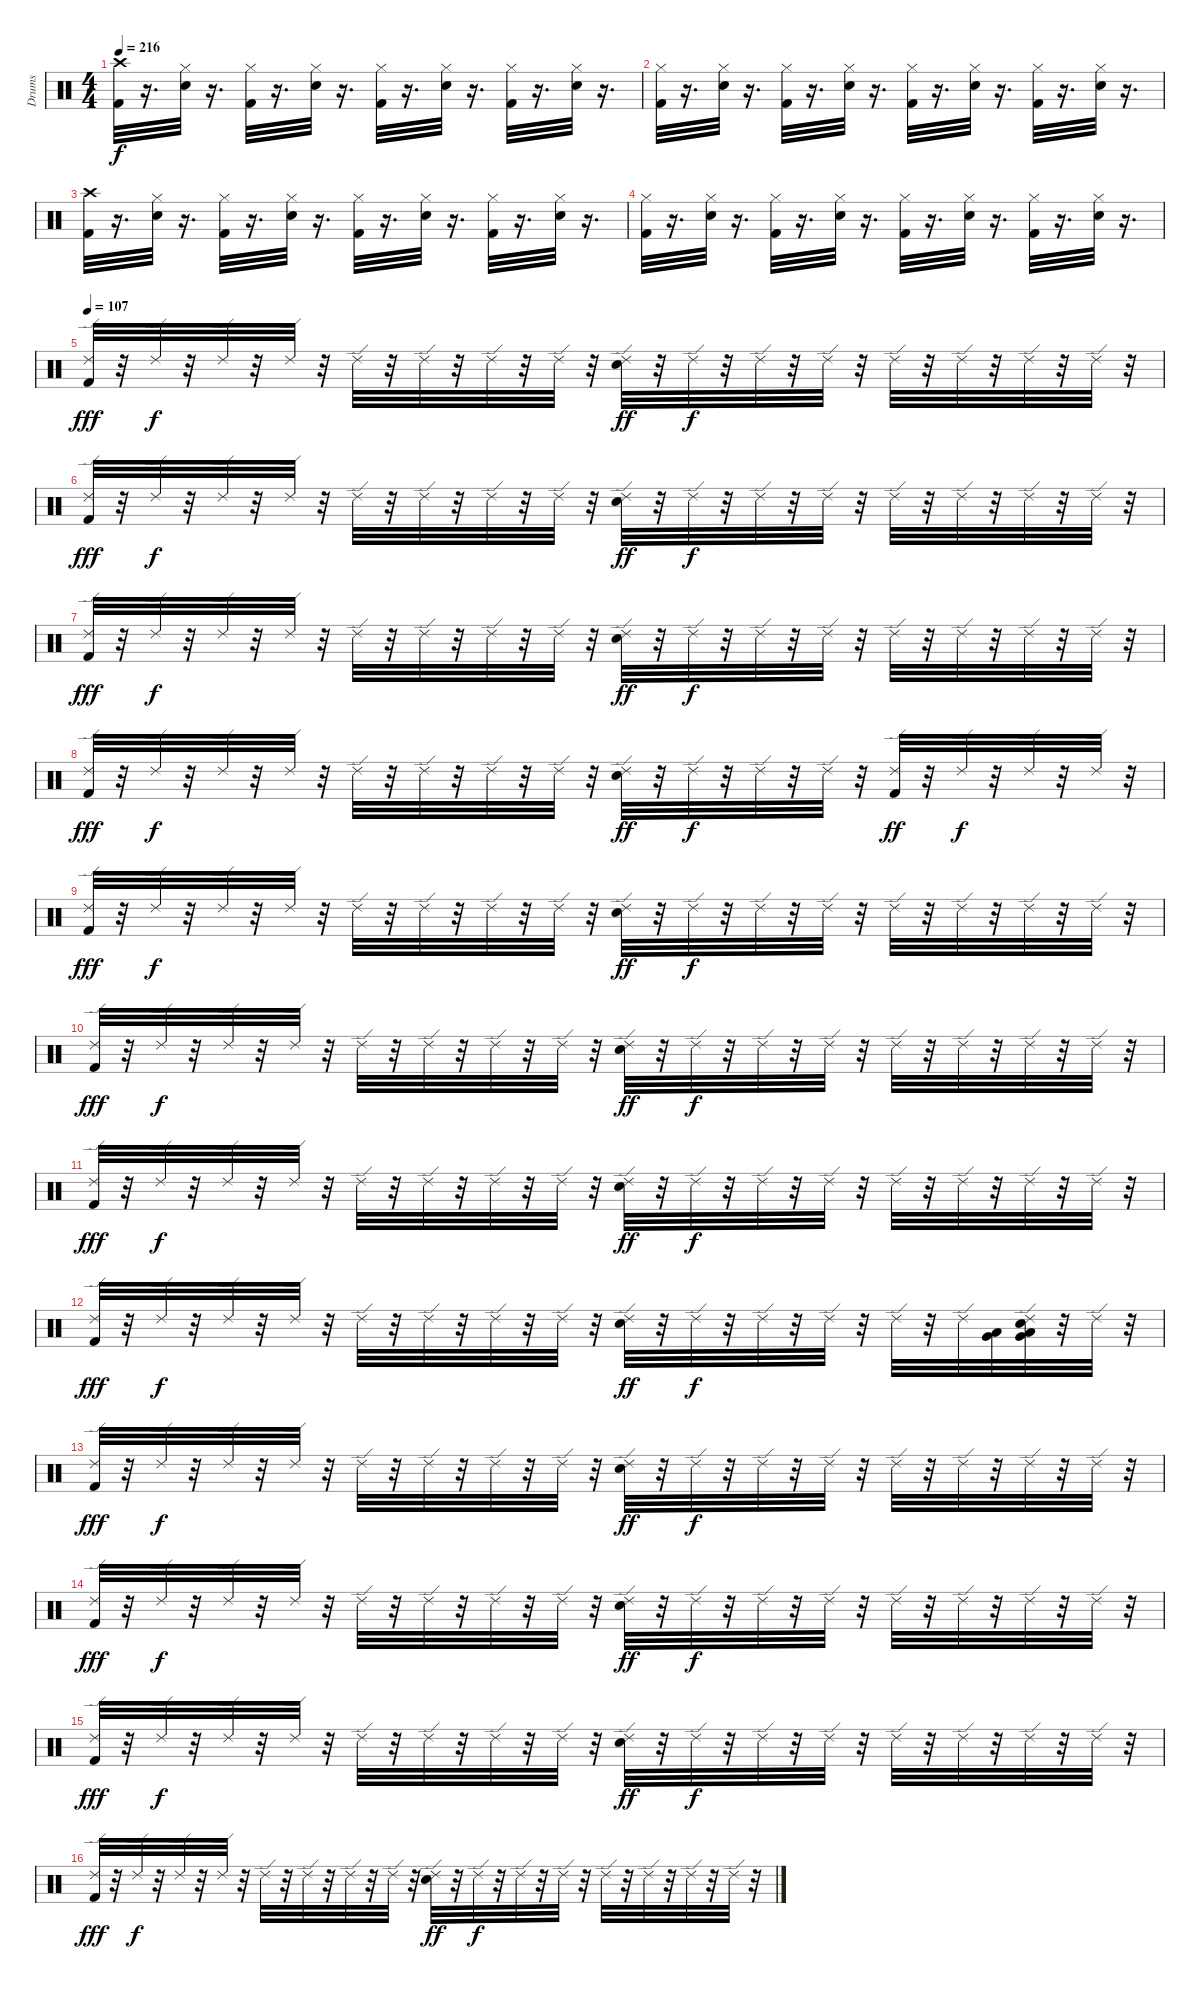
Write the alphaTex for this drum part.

\track ("Drums" "Drums") {instrument percussion}
\staff {score}
\articulation defaults
\ts (4 4)
\tempo 216
\clef neutral
\ks c
("Kick (hit) 2" "Crash high (hit)").32{dy f} r.16{d} ("Snare (hit) 2" "Hi-Hat (closed)").32 r.16{d} ("Kick (hit) 2" "Hi-Hat (closed)").32 r.16{d} ("Snare (hit) 2" "Hi-Hat (closed)").32 r.16{d} ("Kick (hit) 2" "Hi-Hat (closed)").32 r.16{d} ("Snare (hit) 2" "Hi-Hat (closed)").32 r.16{d} ("Kick (hit) 2" "Hi-Hat (closed)").32 r.16{d} ("Snare (hit) 2" "Hi-Hat (closed)").32 r.16{d} |
("Kick (hit) 2" "Hi-Hat (closed)").32 r.16{d} ("Snare (hit) 2" "Hi-Hat (closed)").32 r.16{d} ("Kick (hit) 2" "Hi-Hat (closed)").32 r.16{d} ("Snare (hit) 2" "Hi-Hat (closed)").32 r.16{d} ("Kick (hit) 2" "Hi-Hat (closed)").32 r.16{d} ("Snare (hit) 2" "Hi-Hat (closed)").32 r.16{d} ("Kick (hit) 2" "Hi-Hat (closed)").32 r.16{d} ("Snare (hit) 2" "Hi-Hat (closed)").32 r.16{d} |
("Kick (hit) 2" "Crash high (hit)").32 r.16{d} ("Snare (hit) 2" "Hi-Hat (closed)").32 r.16{d} ("Kick (hit) 2" "Hi-Hat (closed)").32 r.16{d} ("Snare (hit) 2" "Hi-Hat (closed)").32 r.16{d} ("Kick (hit) 2" "Hi-Hat (closed)").32 r.16{d} ("Snare (hit) 2" "Hi-Hat (closed)").32 r.16{d} ("Kick (hit) 2" "Hi-Hat (closed)").32 r.16{d} ("Snare (hit) 2" "Hi-Hat (closed)").32 r.16{d} |
("Kick (hit) 2" "Hi-Hat (closed)").32 r.16{d} ("Snare (hit) 2" "Hi-Hat (closed)").32 r.16{d} ("Kick (hit) 2" "Hi-Hat (closed)").32 r.16{d} ("Snare (hit) 2" "Hi-Hat (closed)").32 r.16{d} ("Kick (hit) 2" "Hi-Hat (closed)").32 r.16{d} ("Snare (hit) 2" "Hi-Hat (closed)").32 r.16{d} ("Kick (hit) 2" "Hi-Hat (closed)").32 r.16{d} ("Snare (hit) 2" "Hi-Hat (closed)").32 r.16{d} |
\tempo 107
("Kick (hit) 2" "Ride (edge) 2").32{dy fff} r.32 "Ride (edge) 2".32{dy f} r.32 "Ride (edge) 2".32 r.32 "Ride (edge) 2".32 r.32 "Ride (edge) 2".32 r.32 "Ride (edge) 2".32 r.32 "Ride (edge) 2".32 r.32 "Ride (edge) 2".32 r.32 ("Snare (hit) 2" "Ride (edge) 2").32{dy ff} r.32 "Ride (edge) 2".32{dy f} r.32 "Ride (edge) 2".32 r.32 "Ride (edge) 2".32 r.32 "Ride (edge) 2".32 r.32 "Ride (edge) 2".32 r.32 "Ride (edge) 2".32 r.32 "Ride (edge) 2".32 r.32 |
("Kick (hit) 2" "Ride (edge) 2").32{dy fff} r.32 "Ride (edge) 2".32{dy f} r.32 "Ride (edge) 2".32 r.32 "Ride (edge) 2".32 r.32 "Ride (edge) 2".32 r.32 "Ride (edge) 2".32 r.32 "Ride (edge) 2".32 r.32 "Ride (edge) 2".32 r.32 ("Snare (hit) 2" "Ride (edge) 2").32{dy ff} r.32 "Ride (edge) 2".32{dy f} r.32 "Ride (edge) 2".32 r.32 "Ride (edge) 2".32 r.32 "Ride (edge) 2".32 r.32 "Ride (edge) 2".32 r.32 "Ride (edge) 2".32 r.32 "Ride (edge) 2".32 r.32 |
("Kick (hit) 2" "Ride (edge) 2").32{dy fff} r.32 "Ride (edge) 2".32{dy f} r.32 "Ride (edge) 2".32 r.32 "Ride (edge) 2".32 r.32 "Ride (edge) 2".32 r.32 "Ride (edge) 2".32 r.32 "Ride (edge) 2".32 r.32 "Ride (edge) 2".32 r.32 ("Snare (hit) 2" "Ride (edge) 2").32{dy ff} r.32 "Ride (edge) 2".32{dy f} r.32 "Ride (edge) 2".32 r.32 "Ride (edge) 2".32 r.32 "Ride (edge) 2".32 r.32 "Ride (edge) 2".32 r.32 "Ride (edge) 2".32 r.32 "Ride (edge) 2".32 r.32 |
("Kick (hit) 2" "Ride (edge) 2").32{dy fff} r.32 "Ride (edge) 2".32{dy f} r.32 "Ride (edge) 2".32 r.32 "Ride (edge) 2".32 r.32 "Ride (edge) 2".32 r.32 "Ride (edge) 2".32 r.32 "Ride (edge) 2".32 r.32 "Ride (edge) 2".32 r.32 ("Snare (hit) 2" "Ride (edge) 2").32{dy ff} r.32 "Ride (edge) 2".32{dy f} r.32 "Ride (edge) 2".32 r.32 "Ride (edge) 2".32 r.32 ("Ride (edge) 2" "Kick (hit) 2").32{dy ff} r.32 "Ride (edge) 2".32{dy f} r.32 "Ride (edge) 2".32 r.32 "Ride (edge) 2".32 r.32 |
("Kick (hit) 2" "Ride (edge) 2").32{dy fff} r.32 "Ride (edge) 2".32{dy f} r.32 "Ride (edge) 2".32 r.32 "Ride (edge) 2".32 r.32 "Ride (edge) 2".32 r.32 "Ride (edge) 2".32 r.32 "Ride (edge) 2".32 r.32 "Ride (edge) 2".32 r.32 ("Snare (hit) 2" "Ride (edge) 2").32{dy ff} r.32 "Ride (edge) 2".32{dy f} r.32 "Ride (edge) 2".32 r.32 "Ride (edge) 2".32 r.32 "Ride (edge) 2".32 r.32 "Ride (edge) 2".32 r.32 "Ride (edge) 2".32 r.32 "Ride (edge) 2".32 r.32 |
("Kick (hit) 2" "Ride (edge) 2").32{dy fff} r.32 "Ride (edge) 2".32{dy f} r.32 "Ride (edge) 2".32 r.32 "Ride (edge) 2".32 r.32 "Ride (edge) 2".32 r.32 "Ride (edge) 2".32 r.32 "Ride (edge) 2".32 r.32 "Ride (edge) 2".32 r.32 ("Snare (hit) 2" "Ride (edge) 2").32{dy ff} r.32 "Ride (edge) 2".32{dy f} r.32 "Ride (edge) 2".32 r.32 "Ride (edge) 2".32 r.32 "Ride (edge) 2".32 r.32 "Ride (edge) 2".32 r.32 "Ride (edge) 2".32 r.32 "Ride (edge) 2".32 r.32 |
("Kick (hit) 2" "Ride (edge) 2").32{dy fff} r.32 "Ride (edge) 2".32{dy f} r.32 "Ride (edge) 2".32 r.32 "Ride (edge) 2".32 r.32 "Ride (edge) 2".32 r.32 "Ride (edge) 2".32 r.32 "Ride (edge) 2".32 r.32 "Ride (edge) 2".32 r.32 ("Snare (hit) 2" "Ride (edge) 2").32{dy ff} r.32 "Ride (edge) 2".32{dy f} r.32 "Ride (edge) 2".32 r.32 "Ride (edge) 2".32 r.32 "Ride (edge) 2".32 r.32 "Ride (edge) 2".32 r.32 "Ride (edge) 2".32 r.32 "Ride (edge) 2".32 r.32 |
("Kick (hit) 2" "Ride (edge) 2").32{dy fff} r.32 "Ride (edge) 2".32{dy f} r.32 "Ride (edge) 2".32 r.32 "Ride (edge) 2".32 r.32 "Ride (edge) 2".32 r.32 "Ride (edge) 2".32 r.32 "Ride (edge) 2".32 r.32 "Ride (edge) 2".32 r.32 ("Snare (hit) 2" "Ride (edge) 2").32{dy ff} r.32 "Ride (edge) 2".32{dy f} r.32 "Ride (edge) 2".32 r.32 "Ride (edge) 2".32 r.32 "Ride (edge) 2".32 r.32 "Ride (edge) 2".32 ("Low Floor Tom (hit)" "Very Low Tom (hit)").32 ("Ride (edge) 2" "Snare (hit) 2" "Very Low Tom (hit)" "Low Tom (hit)").32 r.32 "Ride (edge) 2".32 r.32 |
("Kick (hit) 2" "Ride (edge) 2").32{dy fff} r.32 "Ride (edge) 2".32{dy f} r.32 "Ride (edge) 2".32 r.32 "Ride (edge) 2".32 r.32 "Ride (edge) 2".32 r.32 "Ride (edge) 2".32 r.32 "Ride (edge) 2".32 r.32 "Ride (edge) 2".32 r.32 ("Snare (hit) 2" "Ride (edge) 2").32{dy ff} r.32 "Ride (edge) 2".32{dy f} r.32 "Ride (edge) 2".32 r.32 "Ride (edge) 2".32 r.32 "Ride (edge) 2".32 r.32 "Ride (edge) 2".32 r.32 "Ride (edge) 2".32 r.32 "Ride (edge) 2".32 r.32 |
("Kick (hit) 2" "Ride (edge) 2").32{dy fff} r.32 "Ride (edge) 2".32{dy f} r.32 "Ride (edge) 2".32 r.32 "Ride (edge) 2".32 r.32 "Ride (edge) 2".32 r.32 "Ride (edge) 2".32 r.32 "Ride (edge) 2".32 r.32 "Ride (edge) 2".32 r.32 ("Snare (hit) 2" "Ride (edge) 2").32{dy ff} r.32 "Ride (edge) 2".32{dy f} r.32 "Ride (edge) 2".32 r.32 "Ride (edge) 2".32 r.32 "Ride (edge) 2".32 r.32 "Ride (edge) 2".32 r.32 "Ride (edge) 2".32 r.32 "Ride (edge) 2".32 r.32 |
("Kick (hit) 2" "Ride (edge) 2").32{dy fff} r.32 "Ride (edge) 2".32{dy f} r.32 "Ride (edge) 2".32 r.32 "Ride (edge) 2".32 r.32 "Ride (edge) 2".32 r.32 "Ride (edge) 2".32 r.32 "Ride (edge) 2".32 r.32 "Ride (edge) 2".32 r.32 ("Snare (hit) 2" "Ride (edge) 2").32{dy ff} r.32 "Ride (edge) 2".32{dy f} r.32 "Ride (edge) 2".32 r.32 "Ride (edge) 2".32 r.32 "Ride (edge) 2".32 r.32 "Ride (edge) 2".32 r.32 "Ride (edge) 2".32 r.32 "Ride (edge) 2".32 r.32 |
("Kick (hit) 2" "Ride (edge) 2").32{dy fff} r.32 "Ride (edge) 2".32{dy f} r.32 "Ride (edge) 2".32 r.32 "Ride (edge) 2".32 r.32 "Ride (edge) 2".32 r.32 "Ride (edge) 2".32 r.32 "Ride (edge) 2".32 r.32 "Ride (edge) 2".32 r.32 ("Snare (hit) 2" "Ride (edge) 2").32{dy ff} r.32 "Ride (edge) 2".32{dy f} r.32 "Ride (edge) 2".32 r.32 "Ride (edge) 2".32 r.32 "Ride (edge) 2".32 r.32 "Ride (edge) 2".32 r.32 "Ride (edge) 2".32 r.32 "Ride (edge) 2".32 r.32
